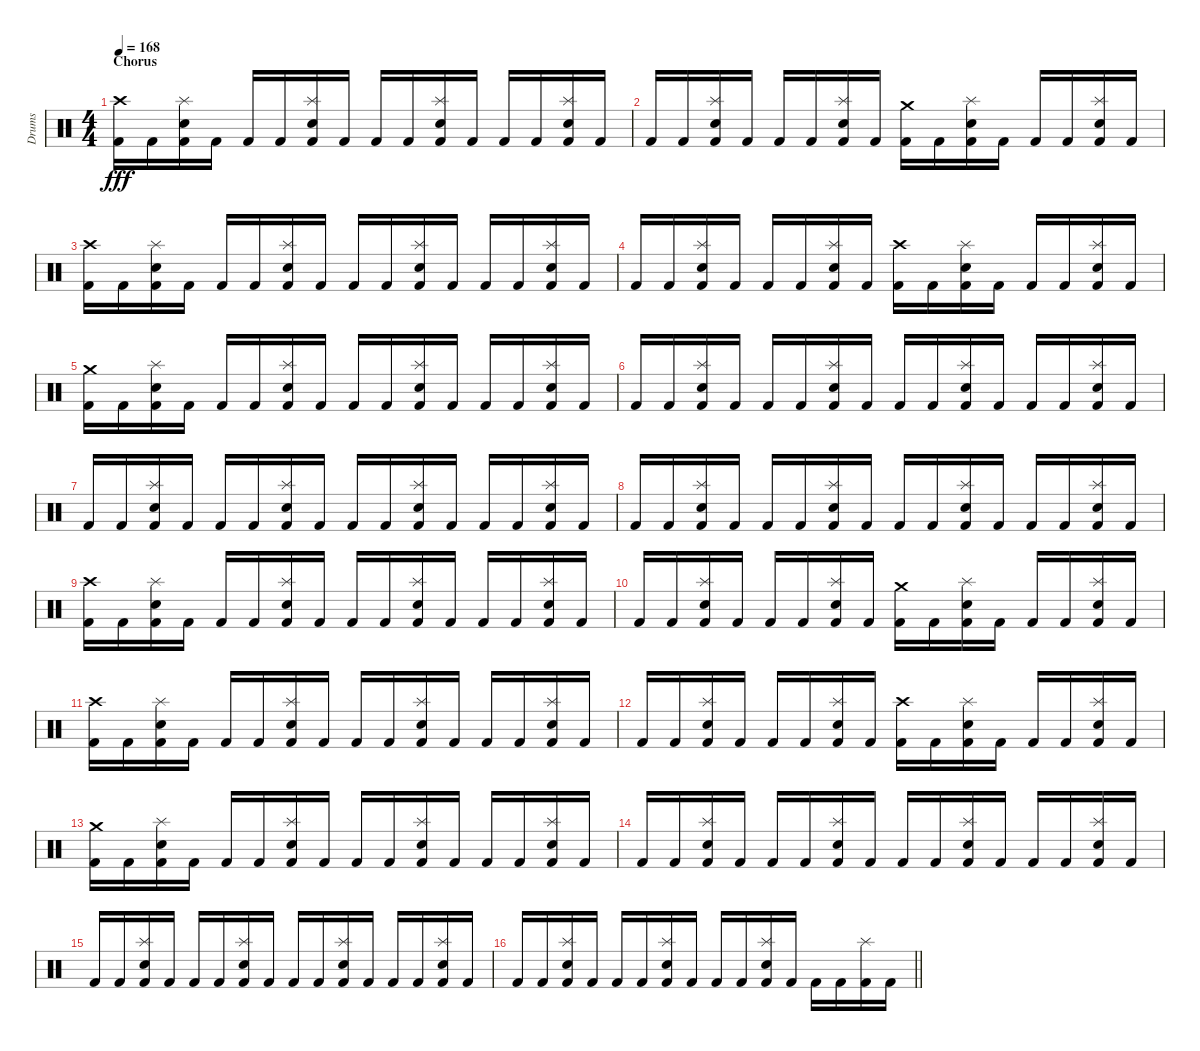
\track ("Drums" "Drums") {instrument percussion}
\staff {score}
\articulation defaults
\ts (4 4)
\section ("" "Chorus")
\tempo 168
\clef neutral
\ks aminor
("Crash high (hit)" "Kick (hit) 2").16{dy fff} "Kick (hit) 2".16 ("Splash (hit)" "Snare (hit) 2" "Kick (hit) 2").16 "Kick (hit) 2".16 "Kick (hit) 2".16 "Kick (hit) 2".16 ("Splash (hit)" "Snare (hit) 2" "Kick (hit) 2").16 "Kick (hit) 2".16 "Kick (hit) 2".16 "Kick (hit) 2".16 ("Splash (hit)" "Snare (hit) 2" "Kick (hit) 2").16 "Kick (hit) 2".16 "Kick (hit) 2".16 "Kick (hit) 2".16 ("Splash (hit)" "Snare (hit) 2" "Kick (hit) 2").16 "Kick (hit) 2".16 |
"Kick (hit) 2".16 "Kick (hit) 2".16 ("Splash (hit)" "Snare (hit) 2" "Kick (hit) 2").16 "Kick (hit) 2".16 "Kick (hit) 2".16 "Kick (hit) 2".16 ("Splash (hit)" "Snare (hit) 2" "Kick (hit) 2").16 "Kick (hit) 2".16 ("Crash medium (hit)" "Kick (hit) 2").16 "Kick (hit) 2".16 ("Splash (hit)" "Snare (hit) 2" "Kick (hit) 2").16 "Kick (hit) 2".16 "Kick (hit) 2".16 "Kick (hit) 2".16 ("Splash (hit)" "Snare (hit) 2" "Kick (hit) 2").16 "Kick (hit) 2".16 |
("Crash high (hit)" "Kick (hit) 2").16 "Kick (hit) 2".16 ("Splash (hit)" "Snare (hit) 2" "Kick (hit) 2").16 "Kick (hit) 2".16 "Kick (hit) 2".16 "Kick (hit) 2".16 ("Splash (hit)" "Snare (hit) 2" "Kick (hit) 2").16 "Kick (hit) 2".16 "Kick (hit) 2".16 "Kick (hit) 2".16 ("Splash (hit)" "Snare (hit) 2" "Kick (hit) 2").16 "Kick (hit) 2".16 "Kick (hit) 2".16 "Kick (hit) 2".16 ("Splash (hit)" "Snare (hit) 2" "Kick (hit) 2").16 "Kick (hit) 2".16 |
"Kick (hit) 2".16 "Kick (hit) 2".16 ("Splash (hit)" "Snare (hit) 2" "Kick (hit) 2").16 "Kick (hit) 2".16 "Kick (hit) 2".16 "Kick (hit) 2".16 ("Splash (hit)" "Snare (hit) 2" "Kick (hit) 2").16 "Kick (hit) 2".16 ("Crash high (hit)" "Kick (hit) 2").16 "Kick (hit) 2".16 ("Splash (hit)" "Snare (hit) 2" "Kick (hit) 2").16 "Kick (hit) 2".16 "Kick (hit) 2".16 "Kick (hit) 2".16 ("Splash (hit)" "Snare (hit) 2" "Kick (hit) 2").16 "Kick (hit) 2".16 |
("Crash medium (hit)" "Kick (hit) 2").16 "Kick (hit) 2".16 ("Splash (hit)" "Snare (hit) 2" "Kick (hit) 2").16 "Kick (hit) 2".16 "Kick (hit) 2".16 "Kick (hit) 2".16 ("Splash (hit)" "Snare (hit) 2" "Kick (hit) 2").16 "Kick (hit) 2".16 "Kick (hit) 2".16 "Kick (hit) 2".16 ("Splash (hit)" "Snare (hit) 2" "Kick (hit) 2").16 "Kick (hit) 2".16 "Kick (hit) 2".16 "Kick (hit) 2".16 ("Splash (hit)" "Snare (hit) 2" "Kick (hit) 2").16 "Kick (hit) 2".16 |
"Kick (hit) 2".16 "Kick (hit) 2".16 ("Splash (hit)" "Snare (hit) 2" "Kick (hit) 2").16 "Kick (hit) 2".16 "Kick (hit) 2".16 "Kick (hit) 2".16 ("Splash (hit)" "Snare (hit) 2" "Kick (hit) 2").16 "Kick (hit) 2".16 "Kick (hit) 2".16 "Kick (hit) 2".16 ("Splash (hit)" "Snare (hit) 2" "Kick (hit) 2").16 "Kick (hit) 2".16 "Kick (hit) 2".16 "Kick (hit) 2".16 ("Splash (hit)" "Snare (hit) 2" "Kick (hit) 2").16 "Kick (hit) 2".16 |
"Kick (hit) 2".16 "Kick (hit) 2".16 ("Splash (hit)" "Snare (hit) 2" "Kick (hit) 2").16 "Kick (hit) 2".16 "Kick (hit) 2".16 "Kick (hit) 2".16 ("Splash (hit)" "Snare (hit) 2" "Kick (hit) 2").16 "Kick (hit) 2".16 "Kick (hit) 2".16 "Kick (hit) 2".16 ("Splash (hit)" "Snare (hit) 2" "Kick (hit) 2").16 "Kick (hit) 2".16 "Kick (hit) 2".16 "Kick (hit) 2".16 ("Splash (hit)" "Snare (hit) 2" "Kick (hit) 2").16 "Kick (hit) 2".16 |
"Kick (hit) 2".16 "Kick (hit) 2".16 ("Splash (hit)" "Snare (hit) 2" "Kick (hit) 2").16 "Kick (hit) 2".16 "Kick (hit) 2".16 "Kick (hit) 2".16 ("Splash (hit)" "Snare (hit) 2" "Kick (hit) 2").16 "Kick (hit) 2".16 "Kick (hit) 2".16 "Kick (hit) 2".16 ("Splash (hit)" "Snare (hit) 2" "Kick (hit) 2").16 "Kick (hit) 2".16 "Kick (hit) 2".16 "Kick (hit) 2".16 ("Splash (hit)" "Snare (hit) 2" "Kick (hit) 2").16 "Kick (hit) 2".16 |
("Crash high (hit)" "Kick (hit) 2").16 "Kick (hit) 2".16 ("Splash (hit)" "Snare (hit) 2" "Kick (hit) 2").16 "Kick (hit) 2".16 "Kick (hit) 2".16 "Kick (hit) 2".16 ("Splash (hit)" "Snare (hit) 2" "Kick (hit) 2").16 "Kick (hit) 2".16 "Kick (hit) 2".16 "Kick (hit) 2".16 ("Splash (hit)" "Snare (hit) 2" "Kick (hit) 2").16 "Kick (hit) 2".16 "Kick (hit) 2".16 "Kick (hit) 2".16 ("Splash (hit)" "Snare (hit) 2" "Kick (hit) 2").16 "Kick (hit) 2".16 |
"Kick (hit) 2".16 "Kick (hit) 2".16 ("Splash (hit)" "Snare (hit) 2" "Kick (hit) 2").16 "Kick (hit) 2".16 "Kick (hit) 2".16 "Kick (hit) 2".16 ("Splash (hit)" "Snare (hit) 2" "Kick (hit) 2").16 "Kick (hit) 2".16 ("Crash medium (hit)" "Kick (hit) 2").16 "Kick (hit) 2".16 ("Splash (hit)" "Snare (hit) 2" "Kick (hit) 2").16 "Kick (hit) 2".16 "Kick (hit) 2".16 "Kick (hit) 2".16 ("Splash (hit)" "Snare (hit) 2" "Kick (hit) 2").16 "Kick (hit) 2".16 |
("Crash high (hit)" "Kick (hit) 2").16 "Kick (hit) 2".16 ("Splash (hit)" "Snare (hit) 2" "Kick (hit) 2").16 "Kick (hit) 2".16 "Kick (hit) 2".16 "Kick (hit) 2".16 ("Splash (hit)" "Snare (hit) 2" "Kick (hit) 2").16 "Kick (hit) 2".16 "Kick (hit) 2".16 "Kick (hit) 2".16 ("Splash (hit)" "Snare (hit) 2" "Kick (hit) 2").16 "Kick (hit) 2".16 "Kick (hit) 2".16 "Kick (hit) 2".16 ("Splash (hit)" "Snare (hit) 2" "Kick (hit) 2").16 "Kick (hit) 2".16 |
"Kick (hit) 2".16 "Kick (hit) 2".16 ("Splash (hit)" "Snare (hit) 2" "Kick (hit) 2").16 "Kick (hit) 2".16 "Kick (hit) 2".16 "Kick (hit) 2".16 ("Splash (hit)" "Snare (hit) 2" "Kick (hit) 2").16 "Kick (hit) 2".16 ("Crash high (hit)" "Kick (hit) 2").16 "Kick (hit) 2".16 ("Splash (hit)" "Snare (hit) 2" "Kick (hit) 2").16 "Kick (hit) 2".16 "Kick (hit) 2".16 "Kick (hit) 2".16 ("Splash (hit)" "Snare (hit) 2" "Kick (hit) 2").16 "Kick (hit) 2".16 |
("Crash medium (hit)" "Kick (hit) 2").16 "Kick (hit) 2".16 ("Splash (hit)" "Snare (hit) 2" "Kick (hit) 2").16 "Kick (hit) 2".16 "Kick (hit) 2".16 "Kick (hit) 2".16 ("Splash (hit)" "Snare (hit) 2" "Kick (hit) 2").16 "Kick (hit) 2".16 "Kick (hit) 2".16 "Kick (hit) 2".16 ("Splash (hit)" "Snare (hit) 2" "Kick (hit) 2").16 "Kick (hit) 2".16 "Kick (hit) 2".16 "Kick (hit) 2".16 ("Splash (hit)" "Snare (hit) 2" "Kick (hit) 2").16 "Kick (hit) 2".16 |
"Kick (hit) 2".16 "Kick (hit) 2".16 ("Splash (hit)" "Snare (hit) 2" "Kick (hit) 2").16 "Kick (hit) 2".16 "Kick (hit) 2".16 "Kick (hit) 2".16 ("Splash (hit)" "Snare (hit) 2" "Kick (hit) 2").16 "Kick (hit) 2".16 "Kick (hit) 2".16 "Kick (hit) 2".16 ("Splash (hit)" "Snare (hit) 2" "Kick (hit) 2").16 "Kick (hit) 2".16 "Kick (hit) 2".16 "Kick (hit) 2".16 ("Splash (hit)" "Snare (hit) 2" "Kick (hit) 2").16 "Kick (hit) 2".16 |
"Kick (hit) 2".16 "Kick (hit) 2".16 ("Splash (hit)" "Snare (hit) 2" "Kick (hit) 2").16 "Kick (hit) 2".16 "Kick (hit) 2".16 "Kick (hit) 2".16 ("Splash (hit)" "Snare (hit) 2" "Kick (hit) 2").16 "Kick (hit) 2".16 "Kick (hit) 2".16 "Kick (hit) 2".16 ("Splash (hit)" "Snare (hit) 2" "Kick (hit) 2").16 "Kick (hit) 2".16 "Kick (hit) 2".16 "Kick (hit) 2".16 ("Splash (hit)" "Snare (hit) 2" "Kick (hit) 2").16 "Kick (hit) 2".16 |
\barLineRight lightlight "Kick (hit) 2".16 "Kick (hit) 2".16
("Splash (hit)" "Snare (hit) 2" "Kick (hit) 2").16 "Kick (hit) 2".16 "Kick (hit) 2".16 "Kick (hit) 2".16 ("Splash (hit)" "Snare (hit) 2" "Kick (hit) 2").16 "Kick (hit) 2".16 "Kick (hit) 2".16 "Kick (hit) 2".16 ("Splash (hit)" "Snare (hit) 2" "Kick (hit) 2").16 "Kick (hit) 2".16 "Kick (hit) 2".16 "Kick (hit) 2".16 ("Splash (hit)" "Kick (hit) 2").16 "Kick (hit) 2".16
